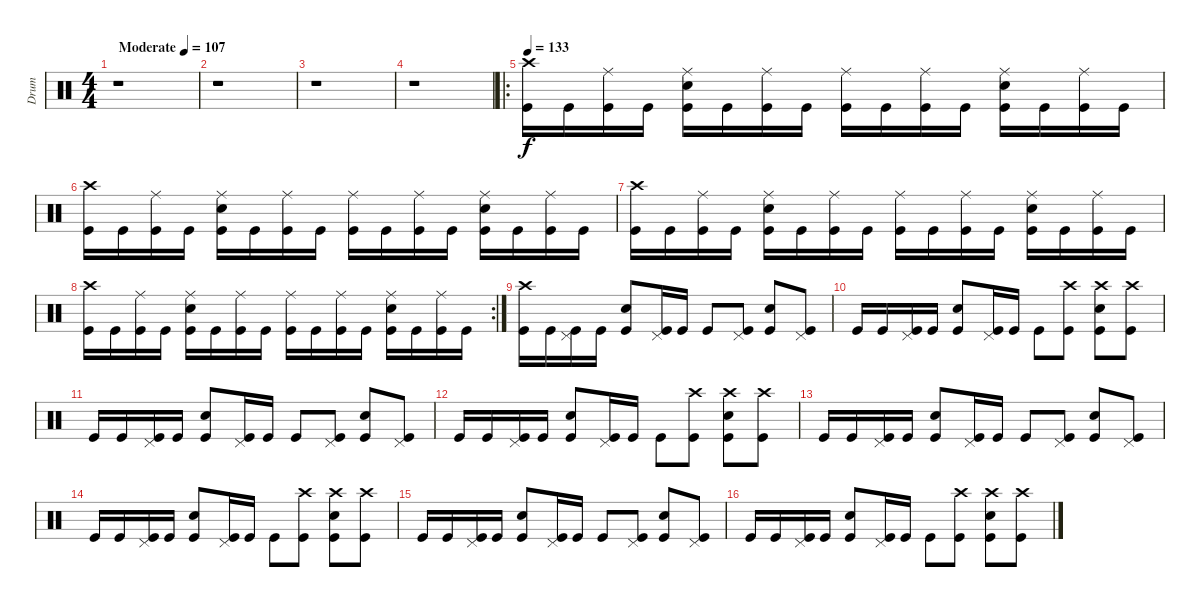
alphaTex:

\track ("Drum" "Drum") {instrument percussion}
\staff {score}
\articulation defaults
\ts (4 4)
\tempo (107 "Moderate")
\clef neutral
\ks c
r.1{dy f} |
r.1 |
r.1 |
r.1 |
\ro
\tempo 133
("Kick (hit)" "Crash high (hit)").16 "Kick (hit)".16 ("Kick (hit)" "Ride (middle)").16 "Kick (hit)".16 ("Kick (hit)" "Ride (middle)" "Snare (hit) 2").16 "Kick (hit)".16 ("Kick (hit)" "Ride (middle)").16 "Kick (hit)".16 ("Kick (hit)" "Ride (middle)").16 "Kick (hit)".16 ("Kick (hit)" "Ride (middle)").16 "Kick (hit)".16 ("Kick (hit)" "Ride (middle)" "Snare (hit) 2").16 "Kick (hit)".16 ("Kick (hit)" "Ride (middle)").16 "Kick (hit)".16 |
("Kick (hit)" "Crash high (hit)").16 "Kick (hit)".16 ("Kick (hit)" "Ride (middle)").16 "Kick (hit)".16 ("Kick (hit)" "Ride (middle)" "Snare (hit) 2").16 "Kick (hit)".16 ("Kick (hit)" "Ride (middle)").16 "Kick (hit)".16 ("Kick (hit)" "Ride (middle)").16 "Kick (hit)".16 ("Kick (hit)" "Ride (middle)").16 "Kick (hit)".16 ("Kick (hit)" "Ride (middle)" "Snare (hit) 2").16 "Kick (hit)".16 ("Kick (hit)" "Ride (middle)").16 "Kick (hit)".16 |
("Kick (hit)" "Crash high (hit)").16 "Kick (hit)".16 ("Kick (hit)" "Ride (middle)").16 "Kick (hit)".16 ("Kick (hit)" "Ride (middle)" "Snare (hit) 2").16 "Kick (hit)".16 ("Kick (hit)" "Ride (middle)").16 "Kick (hit)".16 ("Kick (hit)" "Ride (middle)").16 "Kick (hit)".16 ("Kick (hit)" "Ride (middle)").16 "Kick (hit)".16 ("Kick (hit)" "Ride (middle)" "Snare (hit) 2").16 "Kick (hit)".16 ("Kick (hit)" "Ride (middle)").16 "Kick (hit)".16 |
\rc 2
("Kick (hit)" "Crash high (hit)").16 "Kick (hit)".16 ("Kick (hit)" "Ride (middle)").16 "Kick (hit)".16 ("Kick (hit)" "Ride (middle)" "Snare (hit) 2").16 "Kick (hit)".16 ("Kick (hit)" "Ride (middle)").16 "Kick (hit)".16 ("Kick (hit)" "Ride (middle)").16 "Kick (hit)".16 ("Kick (hit)" "Ride (middle)").16 "Kick (hit)".16 ("Kick (hit)" "Ride (middle)" "Snare (hit) 2").16 "Kick (hit)".16 ("Kick (hit)" "Ride (middle)").16 "Kick (hit)".16 |
("Kick (hit)" "Crash high (hit)").16 "Kick (hit)".16 ("Kick (hit)" "Pedal Hi-Hat (hit)").16 "Kick (hit)".16 ("Kick (hit)" "Snare (hit) 2").8 ("Kick (hit)" "Pedal Hi-Hat (hit)").16 "Kick (hit)".16 "Kick (hit)".8 ("Kick (hit)" "Pedal Hi-Hat (hit)").8 ("Kick (hit)" "Snare (hit) 2").8 ("Kick (hit)" "Pedal Hi-Hat (hit)").8 |
"Kick (hit)".16 "Kick (hit)".16 ("Kick (hit)" "Pedal Hi-Hat (hit)").16 "Kick (hit)".16 ("Kick (hit)" "Snare (hit) 2").8 ("Kick (hit)" "Pedal Hi-Hat (hit)").16 "Kick (hit)".16 "Kick (hit)".8 ("Kick (hit)" "Crash high (hit)").8 ("Kick (hit)" "Snare (hit) 2" "Crash high (hit)").8 ("Kick (hit)" "Crash high (hit)").8 |
"Kick (hit)".16 "Kick (hit)".16 ("Kick (hit)" "Pedal Hi-Hat (hit)").16 "Kick (hit)".16 ("Kick (hit)" "Snare (hit) 2").8 ("Kick (hit)" "Pedal Hi-Hat (hit)").16 "Kick (hit)".16 "Kick (hit)".8 ("Kick (hit)" "Pedal Hi-Hat (hit)").8 ("Kick (hit)" "Snare (hit) 2").8 ("Kick (hit)" "Pedal Hi-Hat (hit)").8 |
"Kick (hit)".16 "Kick (hit)".16 ("Kick (hit)" "Pedal Hi-Hat (hit)").16 "Kick (hit)".16 ("Kick (hit)" "Snare (hit) 2").8 ("Kick (hit)" "Pedal Hi-Hat (hit)").16 "Kick (hit)".16 "Kick (hit)".8 ("Kick (hit)" "Crash high (hit)").8 ("Kick (hit)" "Snare (hit) 2" "Crash high (hit)").8 ("Kick (hit)" "Crash high (hit)").8 |
"Kick (hit)".16 "Kick (hit)".16 ("Kick (hit)" "Pedal Hi-Hat (hit)").16 "Kick (hit)".16 ("Kick (hit)" "Snare (hit) 2").8 ("Kick (hit)" "Pedal Hi-Hat (hit)").16 "Kick (hit)".16 "Kick (hit)".8 ("Kick (hit)" "Pedal Hi-Hat (hit)").8 ("Kick (hit)" "Snare (hit) 2").8 ("Kick (hit)" "Pedal Hi-Hat (hit)").8 |
"Kick (hit)".16 "Kick (hit)".16 ("Kick (hit)" "Pedal Hi-Hat (hit)").16 "Kick (hit)".16 ("Kick (hit)" "Snare (hit) 2").8 ("Kick (hit)" "Pedal Hi-Hat (hit)").16 "Kick (hit)".16 "Kick (hit)".8 ("Kick (hit)" "Crash high (hit)").8 ("Kick (hit)" "Snare (hit) 2" "Crash high (hit)").8 ("Kick (hit)" "Crash high (hit)").8 |
"Kick (hit)".16 "Kick (hit)".16 ("Kick (hit)" "Pedal Hi-Hat (hit)").16 "Kick (hit)".16 ("Kick (hit)" "Snare (hit) 2").8 ("Kick (hit)" "Pedal Hi-Hat (hit)").16 "Kick (hit)".16 "Kick (hit)".8 ("Kick (hit)" "Pedal Hi-Hat (hit)").8 ("Kick (hit)" "Snare (hit) 2").8 ("Kick (hit)" "Pedal Hi-Hat (hit)").8 |
"Kick (hit)".16 "Kick (hit)".16 ("Kick (hit)" "Pedal Hi-Hat (hit)").16 "Kick (hit)".16 ("Kick (hit)" "Snare (hit) 2").8 ("Kick (hit)" "Pedal Hi-Hat (hit)").16 "Kick (hit)".16 "Kick (hit)".8 ("Kick (hit)" "Crash high (hit)").8 ("Kick (hit)" "Snare (hit) 2" "Crash high (hit)").8 ("Kick (hit)" "Crash high (hit)").8
